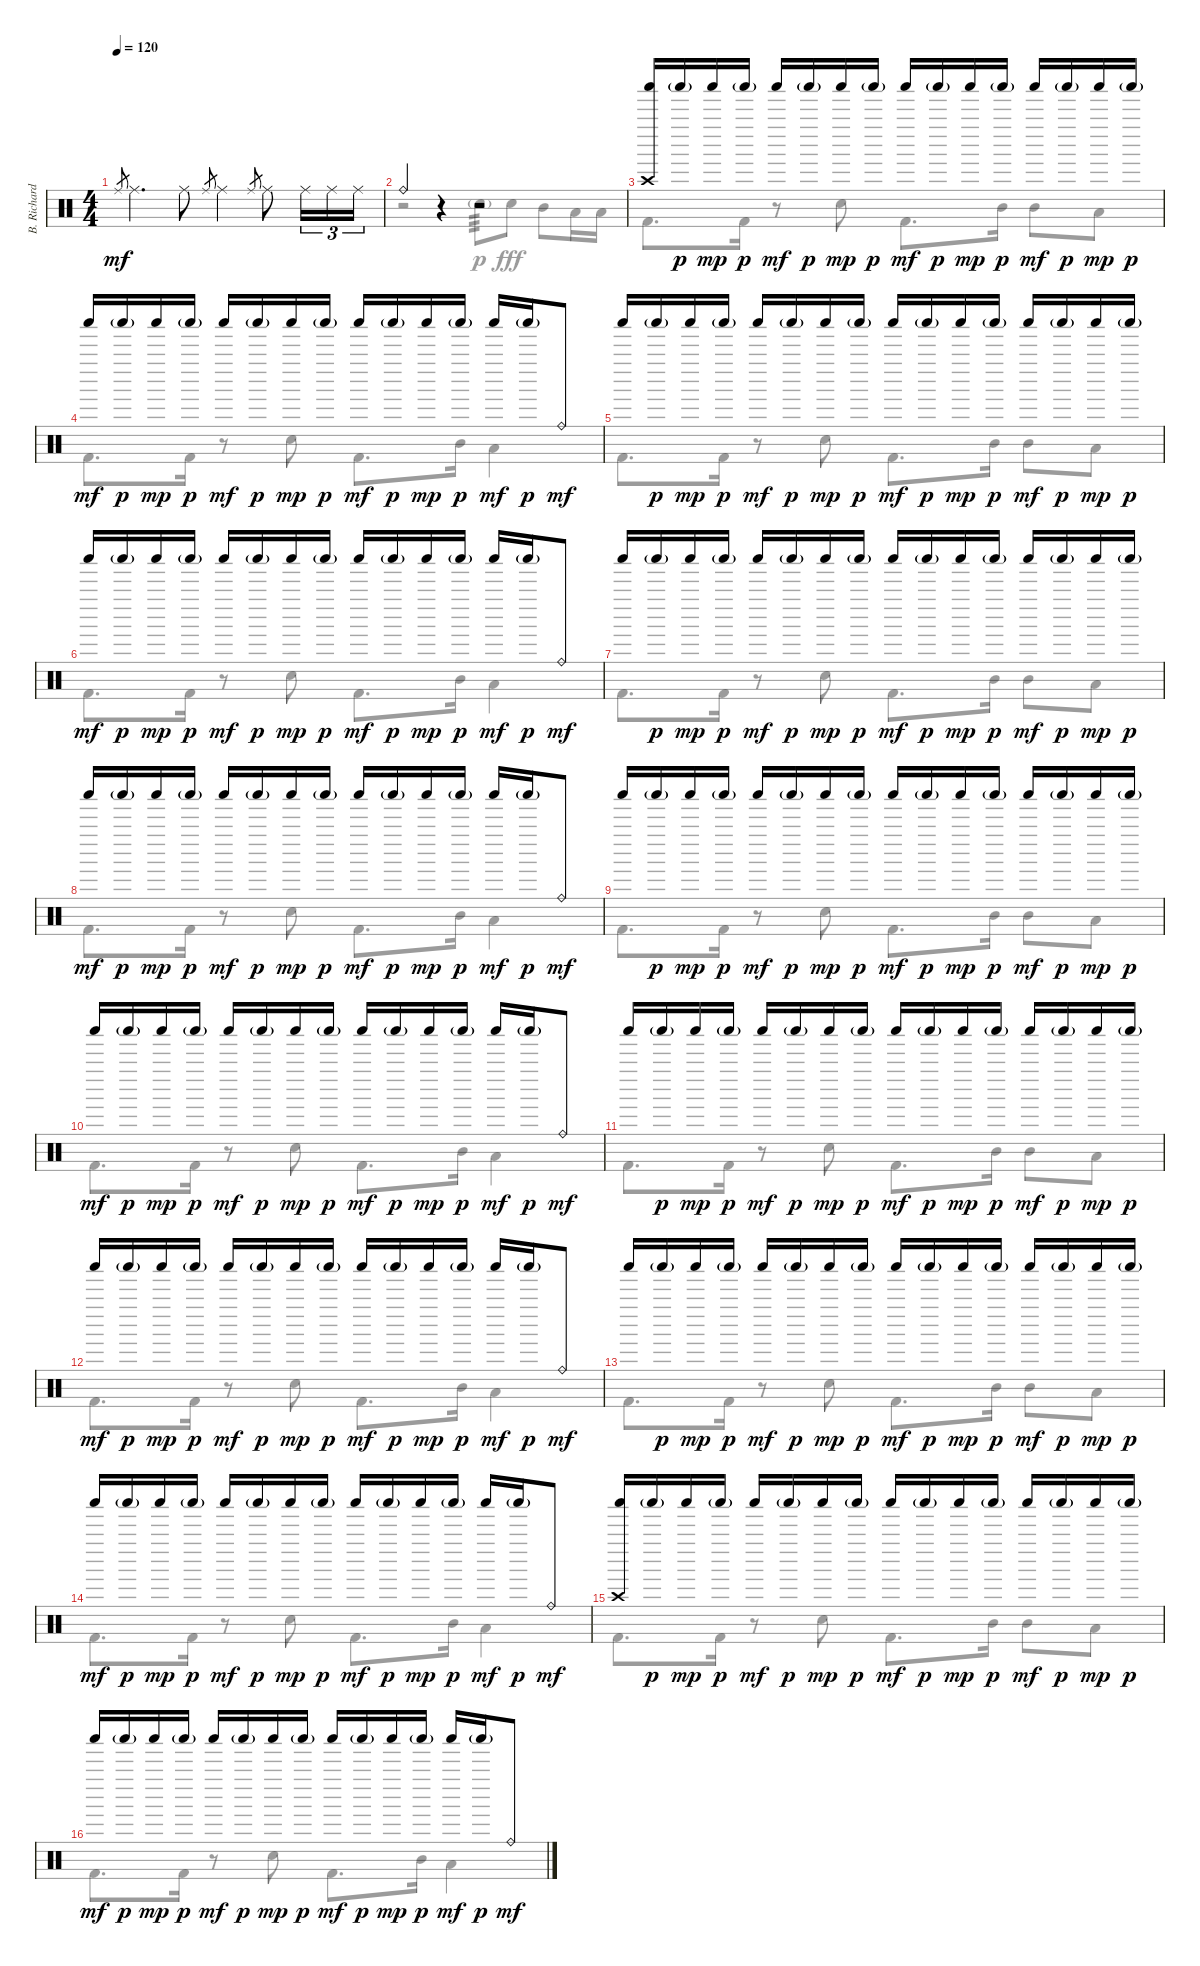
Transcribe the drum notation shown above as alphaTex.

\track ("B. Richardson Drums" "B. Richard") {instrument percussion}
\staff {score}
\articulation defaults
\voice
\ts (4 4)
\tempo 120
\clef neutral
\ks c "Ride (middle)".8{gr dy mf} "Ride (middle)".4{d} "Ride (middle)".8 "Ride (middle)".8{gr} "Ride (middle)".4 "Ride (middle)".8{gr} "Ride (middle)".8 "Ride (middle)".16{tu (3 2)} "Ride (middle)".16{tu (3 2)} "Ride (middle)".16{tu (3 2)}
|
"Ride (bell)".4 r.4 r.2 |
("Shaker (hit)" "Crash high (hit)").16 "Shaker (hit)"{g}.16{dy p} "Shaker (hit)".16{dy mp} "Shaker (hit)"{g}.16{dy p} "Shaker (hit)".16{dy mf} "Shaker (hit)"{g}.16{dy p} "Shaker (hit)".16{dy mp} "Shaker (hit)"{g}.16{dy p} "Shaker (hit)".16{dy mf} "Shaker (hit)"{g}.16{dy p} "Shaker (hit)".16{dy mp} "Shaker (hit)"{g}.16{dy p} "Shaker (hit)".16{dy mf} "Shaker (hit)"{g}.16{dy p} "Shaker (hit)".16{dy mp} "Shaker (hit)"{g}.16{dy p} |
"Shaker (hit)".16{dy mf} "Shaker (hit)"{g}.16{dy p} "Shaker (hit)".16{dy mp} "Shaker (hit)"{g}.16{dy p} "Shaker (hit)".16{dy mf} "Shaker (hit)"{g}.16{dy p} "Shaker (hit)".16{dy mp} "Shaker (hit)"{g}.16{dy p} "Shaker (hit)".16{dy mf} "Shaker (hit)"{g}.16{dy p} "Shaker (hit)".16{dy mp} "Shaker (hit)"{g}.16{dy p} "Shaker (hit)".16{dy mf} "Shaker (hit)"{g}.16{dy p} "Ride (bell)".8{dy mf} |
"Shaker (hit)".16 "Shaker (hit)"{g}.16{dy p} "Shaker (hit)".16{dy mp} "Shaker (hit)"{g}.16{dy p} "Shaker (hit)".16{dy mf} "Shaker (hit)"{g}.16{dy p} "Shaker (hit)".16{dy mp} "Shaker (hit)"{g}.16{dy p} "Shaker (hit)".16{dy mf} "Shaker (hit)"{g}.16{dy p} "Shaker (hit)".16{dy mp} "Shaker (hit)"{g}.16{dy p} "Shaker (hit)".16{dy mf} "Shaker (hit)"{g}.16{dy p} "Shaker (hit)".16{dy mp} "Shaker (hit)"{g}.16{dy p} |
"Shaker (hit)".16{dy mf} "Shaker (hit)"{g}.16{dy p} "Shaker (hit)".16{dy mp} "Shaker (hit)"{g}.16{dy p} "Shaker (hit)".16{dy mf} "Shaker (hit)"{g}.16{dy p} "Shaker (hit)".16{dy mp} "Shaker (hit)"{g}.16{dy p} "Shaker (hit)".16{dy mf} "Shaker (hit)"{g}.16{dy p} "Shaker (hit)".16{dy mp} "Shaker (hit)"{g}.16{dy p} "Shaker (hit)".16{dy mf} "Shaker (hit)"{g}.16{dy p} "Ride (bell)".8{dy mf} |
"Shaker (hit)".16 "Shaker (hit)"{g}.16{dy p} "Shaker (hit)".16{dy mp} "Shaker (hit)"{g}.16{dy p} "Shaker (hit)".16{dy mf} "Shaker (hit)"{g}.16{dy p} "Shaker (hit)".16{dy mp} "Shaker (hit)"{g}.16{dy p} "Shaker (hit)".16{dy mf} "Shaker (hit)"{g}.16{dy p} "Shaker (hit)".16{dy mp} "Shaker (hit)"{g}.16{dy p} "Shaker (hit)".16{dy mf} "Shaker (hit)"{g}.16{dy p} "Shaker (hit)".16{dy mp} "Shaker (hit)"{g}.16{dy p} |
"Shaker (hit)".16{dy mf} "Shaker (hit)"{g}.16{dy p} "Shaker (hit)".16{dy mp} "Shaker (hit)"{g}.16{dy p} "Shaker (hit)".16{dy mf} "Shaker (hit)"{g}.16{dy p} "Shaker (hit)".16{dy mp} "Shaker (hit)"{g}.16{dy p} "Shaker (hit)".16{dy mf} "Shaker (hit)"{g}.16{dy p} "Shaker (hit)".16{dy mp} "Shaker (hit)"{g}.16{dy p} "Shaker (hit)".16{dy mf} "Shaker (hit)"{g}.16{dy p} "Ride (bell)".8{dy mf} |
"Shaker (hit)".16 "Shaker (hit)"{g}.16{dy p} "Shaker (hit)".16{dy mp} "Shaker (hit)"{g}.16{dy p} "Shaker (hit)".16{dy mf} "Shaker (hit)"{g}.16{dy p} "Shaker (hit)".16{dy mp} "Shaker (hit)"{g}.16{dy p} "Shaker (hit)".16{dy mf} "Shaker (hit)"{g}.16{dy p} "Shaker (hit)".16{dy mp} "Shaker (hit)"{g}.16{dy p} "Shaker (hit)".16{dy mf} "Shaker (hit)"{g}.16{dy p} "Shaker (hit)".16{dy mp} "Shaker (hit)"{g}.16{dy p} |
"Shaker (hit)".16{dy mf} "Shaker (hit)"{g}.16{dy p} "Shaker (hit)".16{dy mp} "Shaker (hit)"{g}.16{dy p} "Shaker (hit)".16{dy mf} "Shaker (hit)"{g}.16{dy p} "Shaker (hit)".16{dy mp} "Shaker (hit)"{g}.16{dy p} "Shaker (hit)".16{dy mf} "Shaker (hit)"{g}.16{dy p} "Shaker (hit)".16{dy mp} "Shaker (hit)"{g}.16{dy p} "Shaker (hit)".16{dy mf} "Shaker (hit)"{g}.16{dy p} "Ride (bell)".8{dy mf} |
"Shaker (hit)".16 "Shaker (hit)"{g}.16{dy p} "Shaker (hit)".16{dy mp} "Shaker (hit)"{g}.16{dy p} "Shaker (hit)".16{dy mf} "Shaker (hit)"{g}.16{dy p} "Shaker (hit)".16{dy mp} "Shaker (hit)"{g}.16{dy p} "Shaker (hit)".16{dy mf} "Shaker (hit)"{g}.16{dy p} "Shaker (hit)".16{dy mp} "Shaker (hit)"{g}.16{dy p} "Shaker (hit)".16{dy mf} "Shaker (hit)"{g}.16{dy p} "Shaker (hit)".16{dy mp} "Shaker (hit)"{g}.16{dy p} |
"Shaker (hit)".16{dy mf} "Shaker (hit)"{g}.16{dy p} "Shaker (hit)".16{dy mp} "Shaker (hit)"{g}.16{dy p} "Shaker (hit)".16{dy mf} "Shaker (hit)"{g}.16{dy p} "Shaker (hit)".16{dy mp} "Shaker (hit)"{g}.16{dy p} "Shaker (hit)".16{dy mf} "Shaker (hit)"{g}.16{dy p} "Shaker (hit)".16{dy mp} "Shaker (hit)"{g}.16{dy p} "Shaker (hit)".16{dy mf} "Shaker (hit)"{g}.16{dy p} "Ride (bell)".8{dy mf} |
"Shaker (hit)".16 "Shaker (hit)"{g}.16{dy p} "Shaker (hit)".16{dy mp} "Shaker (hit)"{g}.16{dy p} "Shaker (hit)".16{dy mf} "Shaker (hit)"{g}.16{dy p} "Shaker (hit)".16{dy mp} "Shaker (hit)"{g}.16{dy p} "Shaker (hit)".16{dy mf} "Shaker (hit)"{g}.16{dy p} "Shaker (hit)".16{dy mp} "Shaker (hit)"{g}.16{dy p} "Shaker (hit)".16{dy mf} "Shaker (hit)"{g}.16{dy p} "Shaker (hit)".16{dy mp} "Shaker (hit)"{g}.16{dy p} |
"Shaker (hit)".16{dy mf} "Shaker (hit)"{g}.16{dy p} "Shaker (hit)".16{dy mp} "Shaker (hit)"{g}.16{dy p} "Shaker (hit)".16{dy mf} "Shaker (hit)"{g}.16{dy p} "Shaker (hit)".16{dy mp} "Shaker (hit)"{g}.16{dy p} "Shaker (hit)".16{dy mf} "Shaker (hit)"{g}.16{dy p} "Shaker (hit)".16{dy mp} "Shaker (hit)"{g}.16{dy p} "Shaker (hit)".16{dy mf} "Shaker (hit)"{g}.16{dy p} "Ride (bell)".8{dy mf} |
("Shaker (hit)" "Crash high (hit)").16 "Shaker (hit)"{g}.16{dy p} "Shaker (hit)".16{dy mp} "Shaker (hit)"{g}.16{dy p} "Shaker (hit)".16{dy mf} "Shaker (hit)"{g}.16{dy p} "Shaker (hit)".16{dy mp} "Shaker (hit)"{g}.16{dy p} "Shaker (hit)".16{dy mf} "Shaker (hit)"{g}.16{dy p} "Shaker (hit)".16{dy mp} "Shaker (hit)"{g}.16{dy p} "Shaker (hit)".16{dy mf} "Shaker (hit)"{g}.16{dy p} "Shaker (hit)".16{dy mp} "Shaker (hit)"{g}.16{dy p} |
"Shaker (hit)".16{dy mf} "Shaker (hit)"{g}.16{dy p} "Shaker (hit)".16{dy mp} "Shaker (hit)"{g}.16{dy p} "Shaker (hit)".16{dy mf} "Shaker (hit)"{g}.16{dy p} "Shaker (hit)".16{dy mp} "Shaker (hit)"{g}.16{dy p} "Shaker (hit)".16{dy mf} "Shaker (hit)"{g}.16{dy p} "Shaker (hit)".16{dy mp} "Shaker (hit)"{g}.16{dy p} "Shaker (hit)".16{dy mf} "Shaker (hit)"{g}.16{dy p} "Ride (bell)".8{dy mf}
\voice
\clef neutral
\ottava regular
\simile none
\ks c
|
r.2 "Electric Snare (hit)"{g}.8{tp 3 dy p} "Electric Snare (hit)".8{dy fff} "Mid Tom (hit)".8 "Low Tom (hit)".16 "Low Tom (hit)".16 |
"Kick (hit) 2".8{d} "Kick (hit) 2".16 r.8 "Electric Snare (hit)".8 "Kick (hit) 2".8{d} "Mid Tom (hit)".16 "Mid Tom (hit)".8 "Low Tom (hit)".8 |
"Kick (hit) 2".8{d} "Kick (hit) 2".16 r.8 "Electric Snare (hit)".8 "Kick (hit) 2".8{d} "Mid Tom (hit)".16 "Low Tom (hit)".4 |
"Kick (hit) 2".8{d} "Kick (hit) 2".16 r.8 "Electric Snare (hit)".8 "Kick (hit) 2".8{d} "Mid Tom (hit)".16 "Mid Tom (hit)".8 "Low Tom (hit)".8 |
"Kick (hit) 2".8{d} "Kick (hit) 2".16 r.8 "Electric Snare (hit)".8 "Kick (hit) 2".8{d} "Mid Tom (hit)".16 "Low Tom (hit)".4 |
"Kick (hit) 2".8{d} "Kick (hit) 2".16 r.8 "Electric Snare (hit)".8 "Kick (hit) 2".8{d} "Mid Tom (hit)".16 "Mid Tom (hit)".8 "Low Tom (hit)".8 |
"Kick (hit) 2".8{d} "Kick (hit) 2".16 r.8 "Electric Snare (hit)".8 "Kick (hit) 2".8{d} "Mid Tom (hit)".16 "Low Tom (hit)".4 |
"Kick (hit) 2".8{d} "Kick (hit) 2".16 r.8 "Electric Snare (hit)".8 "Kick (hit) 2".8{d} "Mid Tom (hit)".16 "Mid Tom (hit)".8 "Low Tom (hit)".8 |
"Kick (hit) 2".8{d} "Kick (hit) 2".16 r.8 "Electric Snare (hit)".8 "Kick (hit) 2".8{d} "Mid Tom (hit)".16 "Low Tom (hit)".4 |
"Kick (hit) 2".8{d} "Kick (hit) 2".16 r.8 "Electric Snare (hit)".8 "Kick (hit) 2".8{d} "Mid Tom (hit)".16 "Mid Tom (hit)".8 "Low Tom (hit)".8 |
"Kick (hit) 2".8{d} "Kick (hit) 2".16 r.8 "Electric Snare (hit)".8 "Kick (hit) 2".8{d} "Mid Tom (hit)".16 "Low Tom (hit)".4 |
"Kick (hit) 2".8{d} "Kick (hit) 2".16 r.8 "Electric Snare (hit)".8 "Kick (hit) 2".8{d} "Mid Tom (hit)".16 "Mid Tom (hit)".8 "Low Tom (hit)".8 |
"Kick (hit) 2".8{d} "Kick (hit) 2".16 r.8 "Electric Snare (hit)".8 "Kick (hit) 2".8{d} "Mid Tom (hit)".16 "Low Tom (hit)".4 |
"Kick (hit) 2".8{d} "Kick (hit) 2".16 r.8 "Electric Snare (hit)".8 "Kick (hit) 2".8{d} "Mid Tom (hit)".16 "Mid Tom (hit)".8 "Low Tom (hit)".8 |
"Kick (hit) 2".8{d} "Kick (hit) 2".16 r.8 "Electric Snare (hit)".8 "Kick (hit) 2".8{d} "Mid Tom (hit)".16 "Low Tom (hit)".4
